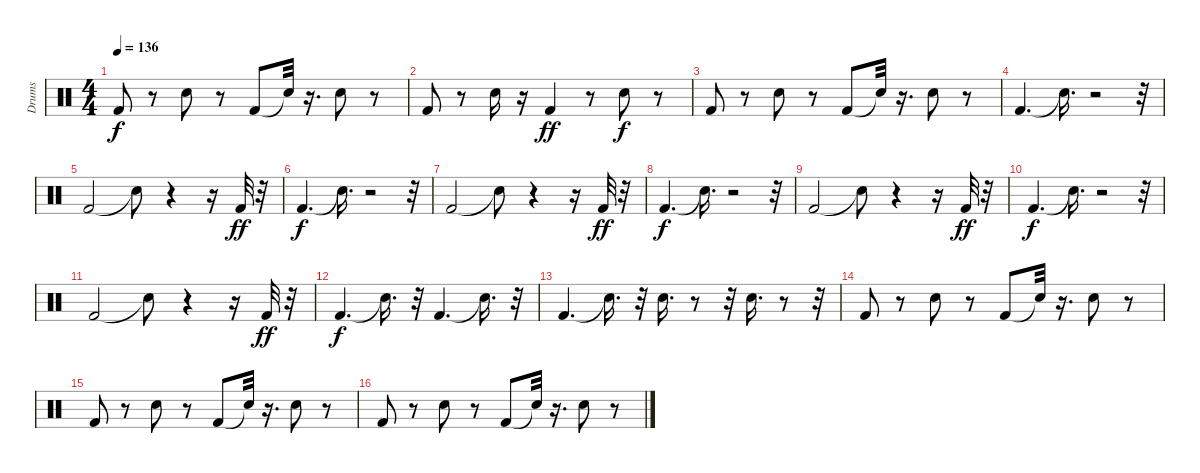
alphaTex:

\track ("Drums" "Drums") {instrument percussion}
\staff {score}
\articulation defaults
\ts (4 4)
\tempo 136
\clef neutral
\ks c "Kick (hit) 2".8{dy f}
r.8 "Electric Snare (hit)".8 r.8 "Kick (hit) 2".8 "Snare (hit)"{t}.32 r.16{d} "Electric Snare (hit)".8 r.8 |
"Kick (hit) 2".8 r.8 "Electric Snare (hit)".16 r.16 "Kick (hit) 2".4{dy ff} r.8 "Electric Snare (hit)".8{dy f} r.8 |
"Kick (hit) 2".8 r.8 "Electric Snare (hit)".8 r.8 "Kick (hit) 2".8 "Snare (hit)"{t}.32 r.16{d} "Electric Snare (hit)".8 r.8 |
"Kick (hit) 2".4{d} "Snare (hit)"{t}.16{d} r.2 r.32 |
"Kick (hit) 2".2 "Snare (hit)"{t}.8 r.4 r.16 "Kick (hit) 2".32{dy ff} r.32 |
"Kick (hit) 2".4{d dy f} "Snare (hit)"{t}.16{d} r.2 r.32 |
"Kick (hit) 2".2 "Snare (hit)"{t}.8 r.4 r.16 "Kick (hit) 2".32{dy ff} r.32 |
"Kick (hit) 2".4{d dy f} "Snare (hit)"{t}.16{d} r.2 r.32 |
"Kick (hit) 2".2 "Snare (hit)"{t}.8 r.4 r.16 "Kick (hit) 2".32{dy ff} r.32 |
"Kick (hit) 2".4{d dy f} "Snare (hit)"{t}.16{d} r.2 r.32 |
"Kick (hit) 2".2 "Snare (hit)"{t}.8 r.4 r.16 "Kick (hit) 2".32{dy ff} r.32 |
"Kick (hit) 2".4{d dy f} "Snare (hit)"{t}.16{d} r.32 "Kick (hit) 2".4{d} "Snare (hit)"{t}.16{d} r.32 |
"Kick (hit) 2".4{d} "Snare (hit)"{t}.16{d} r.32 "Electric Snare (hit)".16{d} r.8 r.32 "Electric Snare (hit)".16{d} r.8 r.32 |
"Kick (hit) 2".8 r.8 "Electric Snare (hit)".8 r.8 "Kick (hit) 2".8 "Snare (hit)"{t}.32 r.16{d} "Electric Snare (hit)".8 r.8 |
"Kick (hit) 2".8 r.8 "Electric Snare (hit)".8 r.8 "Kick (hit) 2".8 "Snare (hit)"{t}.32 r.16{d} "Electric Snare (hit)".8 r.8 |
"Kick (hit) 2".8 r.8 "Electric Snare (hit)".8 r.8 "Kick (hit) 2".8 "Snare (hit)"{t}.32 r.16{d} "Electric Snare (hit)".8 r.8
